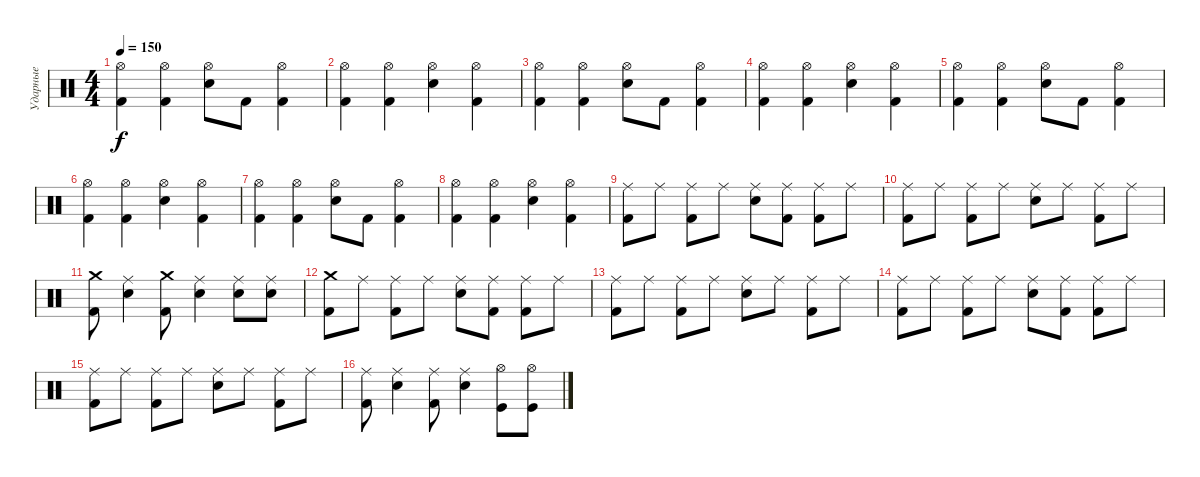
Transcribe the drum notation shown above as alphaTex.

\track ("Ударные" "Ударные") {instrument percussion}
\staff {score}
\articulation defaults
\ts (4 4)
\tempo 150
\clef neutral
\ks c
("Hi-Hat (open)" "Kick (hit) 2").4{dy f} ("Hi-Hat (open)" "Kick (hit) 2").4 ("Hi-Hat (open)" "Snare (hit) 2").8 "Kick (hit) 2".8 ("Hi-Hat (open)" "Kick (hit) 2").4 |
("Hi-Hat (open)" "Kick (hit) 2").4 ("Hi-Hat (open)" "Kick (hit) 2").4 ("Hi-Hat (open)" "Snare (hit) 2").4 ("Hi-Hat (open)" "Kick (hit) 2").4 |
("Hi-Hat (open)" "Kick (hit) 2").4 ("Hi-Hat (open)" "Kick (hit) 2").4 ("Hi-Hat (open)" "Snare (hit) 2").8 "Kick (hit) 2".8 ("Hi-Hat (open)" "Kick (hit) 2").4 |
("Hi-Hat (open)" "Kick (hit) 2").4 ("Hi-Hat (open)" "Kick (hit) 2").4 ("Hi-Hat (open)" "Snare (hit) 2").4 ("Hi-Hat (open)" "Kick (hit) 2").4 |
("Hi-Hat (open)" "Kick (hit) 2").4 ("Hi-Hat (open)" "Kick (hit) 2").4 ("Hi-Hat (open)" "Snare (hit) 2").8 "Kick (hit) 2".8 ("Hi-Hat (open)" "Kick (hit) 2").4 |
("Hi-Hat (open)" "Kick (hit) 2").4 ("Hi-Hat (open)" "Kick (hit) 2").4 ("Hi-Hat (open)" "Snare (hit) 2").4 ("Hi-Hat (open)" "Kick (hit) 2").4 |
("Hi-Hat (open)" "Kick (hit) 2").4 ("Hi-Hat (open)" "Kick (hit) 2").4 ("Hi-Hat (open)" "Snare (hit) 2").8 "Kick (hit) 2".8 ("Hi-Hat (open)" "Kick (hit) 2").4 |
("Hi-Hat (open)" "Kick (hit) 2").4 ("Hi-Hat (open)" "Kick (hit) 2").4 ("Hi-Hat (open)" "Snare (hit) 2").4 ("Hi-Hat (open)" "Kick (hit) 2").4 |
("Ride (middle)" "Kick (hit) 2").8 "Ride (middle)".8 ("Ride (middle)" "Kick (hit) 2").8 "Ride (middle)".8 ("Ride (middle)" "Snare (hit) 2").8 ("Ride (middle)" "Kick (hit) 2").8 ("Ride (middle)" "Kick (hit) 2").8 "Ride (middle)".8 |
("Ride (middle)" "Kick (hit) 2").8 "Ride (middle)".8 ("Ride (middle)" "Kick (hit) 2").8 "Ride (middle)".8 ("Ride (middle)" "Snare (hit) 2").8 "Ride (middle)".8 ("Ride (middle)" "Kick (hit) 2").8 "Ride (middle)".8 |
("Crash medium (hit)" "Kick (hit) 2").8 ("Ride (middle)" "Snare (hit) 2").4 ("Crash medium (hit)" "Kick (hit) 2").8 ("Ride (middle)" "Snare (hit) 2").4 ("Ride (middle)" "Snare (hit) 2").8 ("Ride (middle)" "Snare (hit) 2").8 |
("Crash medium (hit)" "Kick (hit) 2").8 "Ride (middle)".8 ("Ride (middle)" "Kick (hit) 2").8 "Ride (middle)".8 ("Ride (middle)" "Snare (hit) 2").8 ("Ride (middle)" "Kick (hit) 2").8 ("Ride (middle)" "Kick (hit) 2").8 "Ride (middle)".8 |
("Ride (middle)" "Kick (hit) 2").8 "Ride (middle)".8 ("Ride (middle)" "Kick (hit) 2").8 "Ride (middle)".8 ("Ride (middle)" "Snare (hit) 2").8 "Ride (middle)".8 ("Ride (middle)" "Kick (hit) 2").8 "Ride (middle)".8 |
("Ride (middle)" "Kick (hit) 2").8 "Ride (middle)".8 ("Ride (middle)" "Kick (hit) 2").8 "Ride (middle)".8 ("Ride (middle)" "Snare (hit) 2").8 ("Ride (middle)" "Kick (hit) 2").8 ("Ride (middle)" "Kick (hit) 2").8 "Ride (middle)".8 |
("Ride (middle)" "Kick (hit) 2").8 "Ride (middle)".8 ("Ride (middle)" "Kick (hit) 2").8 "Ride (middle)".8 ("Ride (middle)" "Snare (hit) 2").8 "Ride (middle)".8 ("Ride (middle)" "Kick (hit) 2").8 "Ride (middle)".8 |
("Ride (middle)" "Kick (hit) 2").8 ("Ride (middle)" "Snare (hit) 2").4 ("Ride (middle)" "Kick (hit) 2").8 ("Ride (middle)" "Snare (hit) 2").4 ("Hi-Hat (open)" "Kick (hit)").8 ("Hi-Hat (open)" "Kick (hit)").8
